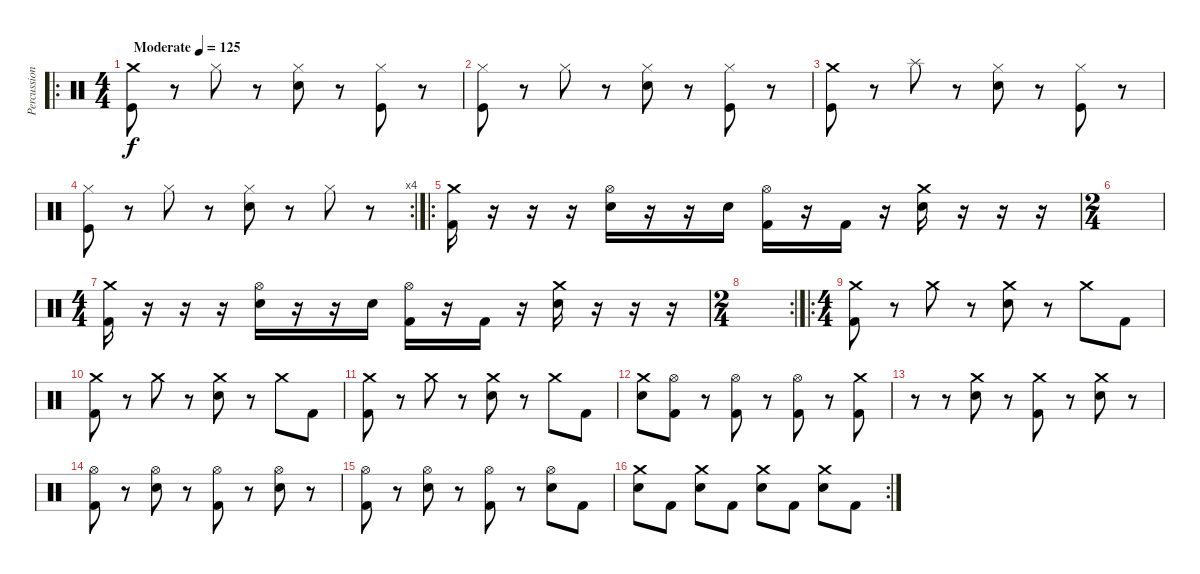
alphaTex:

\track ("Percussion" "Percussion") {instrument percussion}
\staff {score}
\articulation defaults
\ro
\ts (4 4)
\tempo (125 "Moderate")
\clef neutral
\ks c
("Crash medium (hit)" "Kick (hit)").8{dy f} r.8 "Hi-Hat (closed)".8 r.8 ("Hi-Hat (closed)" "Electric Snare (hit)").8 r.8 ("Hi-Hat (closed)" "Kick (hit)").8 r.8 |
("Hi-Hat (closed)" "Kick (hit)").8 r.8 "Hi-Hat (closed)".8 r.8 ("Hi-Hat (closed)" "Electric Snare (hit)").8 r.8 ("Hi-Hat (closed)" "Kick (hit)").8 r.8 |
("Crash medium (hit)" "Kick (hit)").8 r.8 "Splash (hit)".8 r.8 ("Hi-Hat (closed)" "Electric Snare (hit)").8 r.8 ("Hi-Hat (closed)" "Kick (hit)").8 r.8 |
\rc 4
("Hi-Hat (closed)" "Kick (hit)").8 r.8 "Hi-Hat (closed)".8 r.8 ("Hi-Hat (closed)" "Electric Snare (hit)").8 r.8 "Hi-Hat (closed)".8 r.8 |
\ro
("Crash medium (hit)" "Kick (hit) 2").16 r.16 r.16 r.16 ("Hi-Hat (open)" "Electric Snare (hit)").16 r.16 r.16 "Electric Snare (hit)".16 ("Hi-Hat (open)" "Kick (hit) 2").16 r.16 "Kick (hit) 2".16 r.16 ("Crash medium (hit)" "Electric Snare (hit)").16 r.16 r.16 r.16 |
\ts (2 4)
|
\ts (4 4)
("Crash medium (hit)" "Kick (hit) 2").16 r.16 r.16 r.16 ("Hi-Hat (open)" "Electric Snare (hit)").16 r.16 r.16 "Electric Snare (hit)".16 ("Hi-Hat (open)" "Kick (hit) 2").16 r.16 "Kick (hit) 2".16 r.16 ("Crash medium (hit)" "Electric Snare (hit)").16 r.16 r.16 r.16 |
\rc 2
\ts (2 4)
|
\ro
\ts (4 4)
("Crash medium (hit)" "Kick (hit) 2").8 r.8 "Crash medium (hit)".8 r.8 ("Crash medium (hit)" "Electric Snare (hit)").8 r.8 "Crash medium (hit)".8 "Kick (hit) 2".8 |
("Crash medium (hit)" "Kick (hit) 2").8 r.8 "Crash medium (hit)".8 r.8 ("Crash medium (hit)" "Electric Snare (hit)").8 r.8 "Crash medium (hit)".8 "Kick (hit) 2".8 |
("Crash medium (hit)" "Kick (hit) 2").8 r.8 "Crash medium (hit)".8 r.8 ("Crash medium (hit)" "Electric Snare (hit)").8 r.8 "Crash medium (hit)".8 "Kick (hit) 2".8 |
("Crash medium (hit)" "Electric Snare (hit)").8 ("Hi-Hat (open)" "Kick (hit) 2").8 r.8 ("Hi-Hat (open)" "Kick (hit) 2").8 r.8 ("Hi-Hat (open)" "Kick (hit) 2").8 r.8 ("Crash medium (hit)" "Kick (hit) 2").8 |
r.8 r.8 ("Crash medium (hit)" "Electric Snare (hit)").8 r.8 ("Crash medium (hit)" "Kick (hit) 2").8 r.8 ("Crash medium (hit)" "Electric Snare (hit)").8 r.8 |
("Hi-Hat (open)" "Kick (hit) 2").8 r.8 ("Hi-Hat (open)" "Electric Snare (hit)").8 r.8 ("Hi-Hat (open)" "Kick (hit) 2").8 r.8 ("Hi-Hat (open)" "Electric Snare (hit)").8 r.8 |
("Hi-Hat (open)" "Kick (hit) 2").8 r.8 ("Hi-Hat (open)" "Electric Snare (hit)").8 r.8 ("Hi-Hat (open)" "Kick (hit) 2").8 r.8 ("Hi-Hat (open)" "Electric Snare (hit)").8 "Kick (hit) 2".8 |
\rc 2
("Crash medium (hit)" "Electric Snare (hit)").8 "Kick (hit) 2".8 ("Crash medium (hit)" "Electric Snare (hit)").8 "Kick (hit) 2".8 ("Crash medium (hit)" "Electric Snare (hit)").8 "Kick (hit) 2".8 ("Crash medium (hit)" "Electric Snare (hit)").8 "Kick (hit) 2".8
